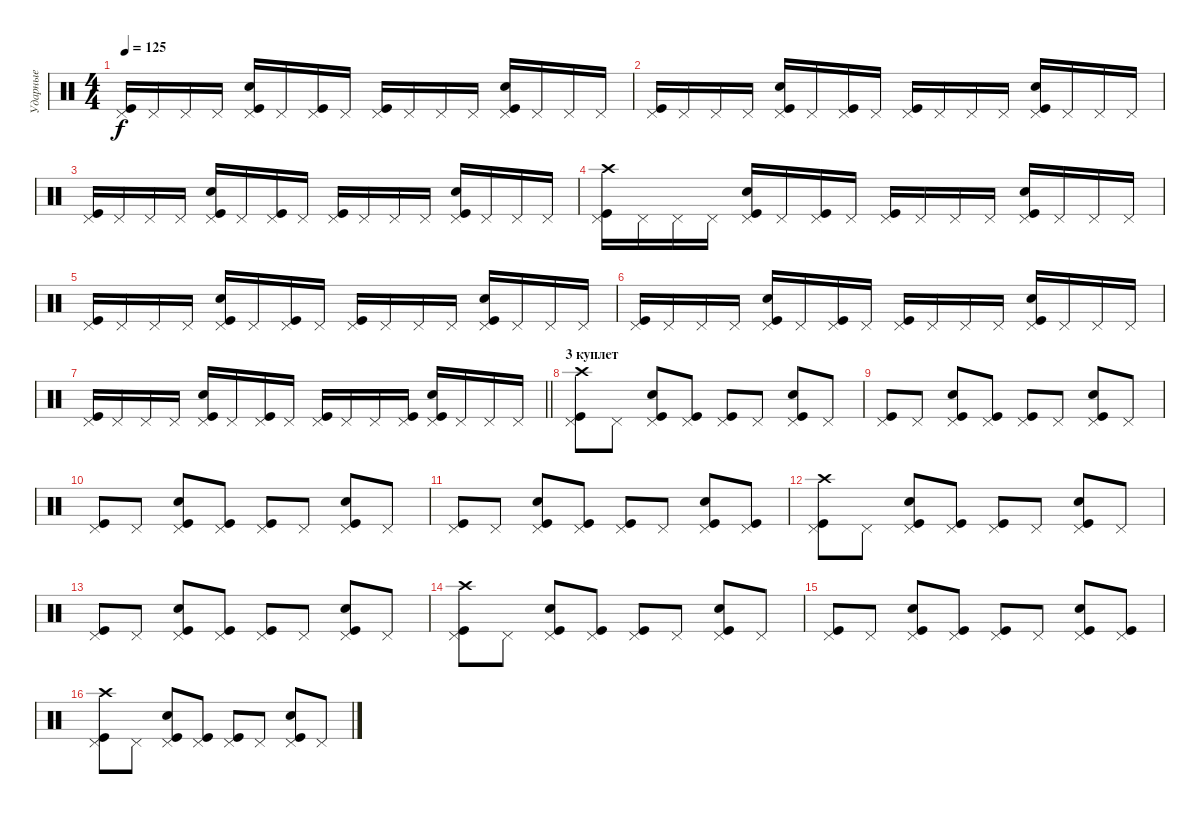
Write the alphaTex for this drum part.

\track ("Ударные" "Ударные") {instrument percussion}
\staff {score}
\articulation defaults
\ts (4 4)
\tempo 125
\clef neutral
\ks c
("Pedal Hi-Hat (hit)" "Kick (hit)").16{dy f} "Pedal Hi-Hat (hit)".16 "Pedal Hi-Hat (hit)".16 "Pedal Hi-Hat (hit)".16 ("Pedal Hi-Hat (hit)" "Kick (hit)" "Snare (hit) 2").16 "Pedal Hi-Hat (hit)".16 ("Pedal Hi-Hat (hit)" "Kick (hit)").16 "Pedal Hi-Hat (hit)".16 ("Pedal Hi-Hat (hit)" "Kick (hit)").16 "Pedal Hi-Hat (hit)".16 "Pedal Hi-Hat (hit)".16 "Pedal Hi-Hat (hit)".16 ("Pedal Hi-Hat (hit)" "Kick (hit)" "Snare (hit) 2").16 "Pedal Hi-Hat (hit)".16 "Pedal Hi-Hat (hit)".16 "Pedal Hi-Hat (hit)".16 |
("Pedal Hi-Hat (hit)" "Kick (hit)").16 "Pedal Hi-Hat (hit)".16 "Pedal Hi-Hat (hit)".16 "Pedal Hi-Hat (hit)".16 ("Pedal Hi-Hat (hit)" "Kick (hit)" "Snare (hit) 2").16 "Pedal Hi-Hat (hit)".16 ("Pedal Hi-Hat (hit)" "Kick (hit)").16 "Pedal Hi-Hat (hit)".16 ("Pedal Hi-Hat (hit)" "Kick (hit)").16 "Pedal Hi-Hat (hit)".16 "Pedal Hi-Hat (hit)".16 "Pedal Hi-Hat (hit)".16 ("Pedal Hi-Hat (hit)" "Kick (hit)" "Snare (hit) 2").16 "Pedal Hi-Hat (hit)".16 "Pedal Hi-Hat (hit)".16 "Pedal Hi-Hat (hit)".16 |
("Pedal Hi-Hat (hit)" "Kick (hit)").16 "Pedal Hi-Hat (hit)".16 "Pedal Hi-Hat (hit)".16 "Pedal Hi-Hat (hit)".16 ("Pedal Hi-Hat (hit)" "Kick (hit)" "Snare (hit) 2").16 "Pedal Hi-Hat (hit)".16 ("Pedal Hi-Hat (hit)" "Kick (hit)").16 "Pedal Hi-Hat (hit)".16 ("Pedal Hi-Hat (hit)" "Kick (hit)").16 "Pedal Hi-Hat (hit)".16 "Pedal Hi-Hat (hit)".16 "Pedal Hi-Hat (hit)".16 ("Pedal Hi-Hat (hit)" "Kick (hit)" "Snare (hit) 2").16 "Pedal Hi-Hat (hit)".16 "Pedal Hi-Hat (hit)".16 "Pedal Hi-Hat (hit)".16 |
("Pedal Hi-Hat (hit)" "Kick (hit)" "Crash high (hit)").16 "Pedal Hi-Hat (hit)".16 "Pedal Hi-Hat (hit)".16 "Pedal Hi-Hat (hit)".16 ("Pedal Hi-Hat (hit)" "Kick (hit)" "Snare (hit) 2").16 "Pedal Hi-Hat (hit)".16 ("Pedal Hi-Hat (hit)" "Kick (hit)").16 "Pedal Hi-Hat (hit)".16 ("Pedal Hi-Hat (hit)" "Kick (hit)").16 "Pedal Hi-Hat (hit)".16 "Pedal Hi-Hat (hit)".16 "Pedal Hi-Hat (hit)".16 ("Pedal Hi-Hat (hit)" "Kick (hit)" "Snare (hit) 2").16 "Pedal Hi-Hat (hit)".16 "Pedal Hi-Hat (hit)".16 "Pedal Hi-Hat (hit)".16 |
("Pedal Hi-Hat (hit)" "Kick (hit)").16 "Pedal Hi-Hat (hit)".16 "Pedal Hi-Hat (hit)".16 "Pedal Hi-Hat (hit)".16 ("Pedal Hi-Hat (hit)" "Kick (hit)" "Snare (hit) 2").16 "Pedal Hi-Hat (hit)".16 ("Pedal Hi-Hat (hit)" "Kick (hit)").16 "Pedal Hi-Hat (hit)".16 ("Pedal Hi-Hat (hit)" "Kick (hit)").16 "Pedal Hi-Hat (hit)".16 "Pedal Hi-Hat (hit)".16 "Pedal Hi-Hat (hit)".16 ("Pedal Hi-Hat (hit)" "Kick (hit)" "Snare (hit) 2").16 "Pedal Hi-Hat (hit)".16 "Pedal Hi-Hat (hit)".16 "Pedal Hi-Hat (hit)".16 |
("Pedal Hi-Hat (hit)" "Kick (hit)").16 "Pedal Hi-Hat (hit)".16 "Pedal Hi-Hat (hit)".16 "Pedal Hi-Hat (hit)".16 ("Pedal Hi-Hat (hit)" "Kick (hit)" "Snare (hit) 2").16 "Pedal Hi-Hat (hit)".16 ("Pedal Hi-Hat (hit)" "Kick (hit)").16 "Pedal Hi-Hat (hit)".16 ("Pedal Hi-Hat (hit)" "Kick (hit)").16 "Pedal Hi-Hat (hit)".16 "Pedal Hi-Hat (hit)".16 "Pedal Hi-Hat (hit)".16 ("Pedal Hi-Hat (hit)" "Kick (hit)" "Snare (hit) 2").16 "Pedal Hi-Hat (hit)".16 "Pedal Hi-Hat (hit)".16 "Pedal Hi-Hat (hit)".16 |
\barLineRight lightlight
("Pedal Hi-Hat (hit)" "Kick (hit)").16 "Pedal Hi-Hat (hit)".16 "Pedal Hi-Hat (hit)".16 "Pedal Hi-Hat (hit)".16 ("Pedal Hi-Hat (hit)" "Kick (hit)" "Snare (hit) 2").16 "Pedal Hi-Hat (hit)".16 ("Pedal Hi-Hat (hit)" "Kick (hit)").16 "Pedal Hi-Hat (hit)".16 ("Pedal Hi-Hat (hit)" "Kick (hit)").16 "Pedal Hi-Hat (hit)".16 "Pedal Hi-Hat (hit)".16 ("Pedal Hi-Hat (hit)" "Kick (hit)").16 ("Pedal Hi-Hat (hit)" "Kick (hit)" "Snare (hit) 2").16 "Pedal Hi-Hat (hit)".16 "Pedal Hi-Hat (hit)".16 "Pedal Hi-Hat (hit)".16 |
\section ("" "3 куплет")
("Pedal Hi-Hat (hit)" "Kick (hit)" "Crash high (hit)").8 "Pedal Hi-Hat (hit)".8 ("Pedal Hi-Hat (hit)" "Kick (hit)" "Snare (hit) 2").8 ("Pedal Hi-Hat (hit)" "Kick (hit)").8 ("Pedal Hi-Hat (hit)" "Kick (hit)").8 "Pedal Hi-Hat (hit)".8 ("Pedal Hi-Hat (hit)" "Kick (hit)" "Snare (hit) 2").8 "Pedal Hi-Hat (hit)".8 |
("Pedal Hi-Hat (hit)" "Kick (hit)").8 "Pedal Hi-Hat (hit)".8 ("Pedal Hi-Hat (hit)" "Kick (hit)" "Snare (hit) 2").8 ("Pedal Hi-Hat (hit)" "Kick (hit)").8 ("Pedal Hi-Hat (hit)" "Kick (hit)").8 "Pedal Hi-Hat (hit)".8 ("Pedal Hi-Hat (hit)" "Kick (hit)" "Snare (hit) 2").8 "Pedal Hi-Hat (hit)".8 |
("Pedal Hi-Hat (hit)" "Kick (hit)").8 "Pedal Hi-Hat (hit)".8 ("Pedal Hi-Hat (hit)" "Kick (hit)" "Snare (hit) 2").8 ("Pedal Hi-Hat (hit)" "Kick (hit)").8 ("Pedal Hi-Hat (hit)" "Kick (hit)").8 "Pedal Hi-Hat (hit)".8 ("Pedal Hi-Hat (hit)" "Kick (hit)" "Snare (hit) 2").8 "Pedal Hi-Hat (hit)".8 |
("Pedal Hi-Hat (hit)" "Kick (hit)").8 "Pedal Hi-Hat (hit)".8 ("Pedal Hi-Hat (hit)" "Kick (hit)" "Snare (hit) 2").8 ("Pedal Hi-Hat (hit)" "Kick (hit)").8 ("Pedal Hi-Hat (hit)" "Kick (hit)").8 "Pedal Hi-Hat (hit)".8 ("Pedal Hi-Hat (hit)" "Kick (hit)" "Snare (hit) 2").8 ("Pedal Hi-Hat (hit)" "Kick (hit)").8 |
("Pedal Hi-Hat (hit)" "Kick (hit)" "Crash high (hit)").8 "Pedal Hi-Hat (hit)".8 ("Pedal Hi-Hat (hit)" "Kick (hit)" "Snare (hit) 2").8 ("Pedal Hi-Hat (hit)" "Kick (hit)").8 ("Pedal Hi-Hat (hit)" "Kick (hit)").8 "Pedal Hi-Hat (hit)".8 ("Pedal Hi-Hat (hit)" "Kick (hit)" "Snare (hit) 2").8 "Pedal Hi-Hat (hit)".8 |
("Pedal Hi-Hat (hit)" "Kick (hit)").8 "Pedal Hi-Hat (hit)".8 ("Pedal Hi-Hat (hit)" "Kick (hit)" "Snare (hit) 2").8 ("Pedal Hi-Hat (hit)" "Kick (hit)").8 ("Pedal Hi-Hat (hit)" "Kick (hit)").8 "Pedal Hi-Hat (hit)".8 ("Pedal Hi-Hat (hit)" "Kick (hit)" "Snare (hit) 2").8 "Pedal Hi-Hat (hit)".8 |
("Pedal Hi-Hat (hit)" "Kick (hit)" "Crash high (hit)").8 "Pedal Hi-Hat (hit)".8 ("Pedal Hi-Hat (hit)" "Kick (hit)" "Snare (hit) 2").8 ("Pedal Hi-Hat (hit)" "Kick (hit)").8 ("Pedal Hi-Hat (hit)" "Kick (hit)").8 "Pedal Hi-Hat (hit)".8 ("Pedal Hi-Hat (hit)" "Kick (hit)" "Snare (hit) 2").8 "Pedal Hi-Hat (hit)".8 |
("Pedal Hi-Hat (hit)" "Kick (hit)").8 "Pedal Hi-Hat (hit)".8 ("Pedal Hi-Hat (hit)" "Kick (hit)" "Snare (hit) 2").8 ("Pedal Hi-Hat (hit)" "Kick (hit)").8 ("Pedal Hi-Hat (hit)" "Kick (hit)").8 "Pedal Hi-Hat (hit)".8 ("Pedal Hi-Hat (hit)" "Kick (hit)" "Snare (hit) 2").8 ("Pedal Hi-Hat (hit)" "Kick (hit)").8 |
("Pedal Hi-Hat (hit)" "Kick (hit)" "Crash high (hit)").8 "Pedal Hi-Hat (hit)".8 ("Pedal Hi-Hat (hit)" "Kick (hit)" "Snare (hit) 2").8 ("Pedal Hi-Hat (hit)" "Kick (hit)").8 ("Pedal Hi-Hat (hit)" "Kick (hit)").8 "Pedal Hi-Hat (hit)".8 ("Pedal Hi-Hat (hit)" "Kick (hit)" "Snare (hit) 2").8 "Pedal Hi-Hat (hit)".8
